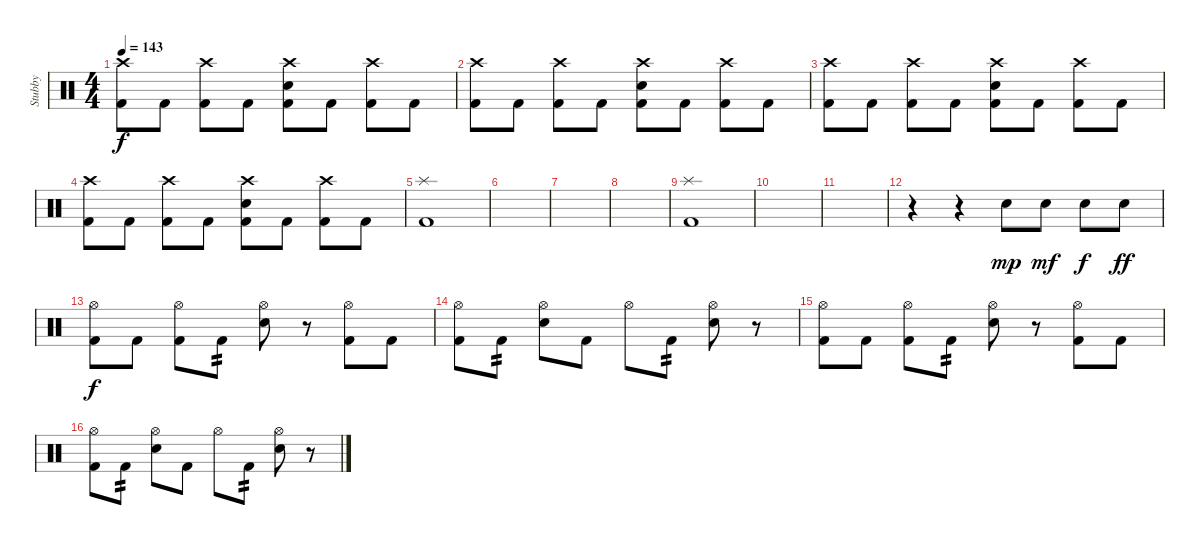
\track ("Stubby" "Stubby") {instrument percussion}
\staff {score}
\articulation defaults
\ts (4 4)
\tempo 143
\clef neutral
\ks c
("Crash high (hit)" "Kick (hit) 2").8{dy f} "Kick (hit) 2".8 ("Crash high (hit)" "Kick (hit) 2").8 "Kick (hit) 2".8 ("Crash high (hit)" "Electric Snare (hit)" "Kick (hit) 2").8 "Kick (hit) 2".8 ("Crash high (hit)" "Kick (hit) 2").8 "Kick (hit) 2".8 |
("Crash high (hit)" "Kick (hit) 2").8 "Kick (hit) 2".8 ("Crash high (hit)" "Kick (hit) 2").8 "Kick (hit) 2".8 ("Crash high (hit)" "Electric Snare (hit)" "Kick (hit) 2").8 "Kick (hit) 2".8 ("Crash high (hit)" "Kick (hit) 2").8 "Kick (hit) 2".8 |
("Crash high (hit)" "Kick (hit) 2").8 "Kick (hit) 2".8 ("Crash high (hit)" "Kick (hit) 2").8 "Kick (hit) 2".8 ("Crash high (hit)" "Electric Snare (hit)" "Kick (hit) 2").8 "Kick (hit) 2".8 ("Crash high (hit)" "Kick (hit) 2").8 "Kick (hit) 2".8 |
("Crash high (hit)" "Kick (hit) 2").8 "Kick (hit) 2".8 ("Crash high (hit)" "Kick (hit) 2").8 "Kick (hit) 2".8 ("Crash high (hit)" "Electric Snare (hit)" "Kick (hit) 2").8 "Kick (hit) 2".8 ("Crash high (hit)" "Kick (hit) 2").8 "Kick (hit) 2".8 |
("Splash (hit)" "Kick (hit) 2").1 |
|
|
|
("Splash (hit)" "Kick (hit) 2").1 |
|
|
r.4 r.4 "Electric Snare (hit)".8{dy mp} "Electric Snare (hit)".8{dy mf} "Electric Snare (hit)".8{dy f} "Electric Snare (hit)".8{dy ff} |
("Hi-Hat (open)" "Kick (hit) 2").8{dy f} "Kick (hit) 2".8 ("Hi-Hat (open)" "Kick (hit) 2").8 "Kick (hit) 2".8{tp 2} ("Hi-Hat (open)" "Electric Snare (hit)").8 r.8 ("Hi-Hat (open)" "Kick (hit) 2").8 "Kick (hit) 2".8 |
("Hi-Hat (open)" "Kick (hit) 2").8 "Kick (hit) 2".8{tp 2} ("Hi-Hat (open)" "Electric Snare (hit)").8 "Kick (hit) 2".8 "Hi-Hat (open)".8 "Kick (hit) 2".8{tp 2} ("Hi-Hat (open)" "Electric Snare (hit)").8 r.8 |
("Hi-Hat (open)" "Kick (hit) 2").8 "Kick (hit) 2".8 ("Hi-Hat (open)" "Kick (hit) 2").8 "Kick (hit) 2".8{tp 2} ("Hi-Hat (open)" "Electric Snare (hit)").8 r.8 ("Hi-Hat (open)" "Kick (hit) 2").8 "Kick (hit) 2".8 |
("Hi-Hat (open)" "Kick (hit) 2").8 "Kick (hit) 2".8{tp 2} ("Hi-Hat (open)" "Electric Snare (hit)").8 "Kick (hit) 2".8 "Hi-Hat (open)".8 "Kick (hit) 2".8{tp 2} ("Hi-Hat (open)" "Electric Snare (hit)").8 r.8
